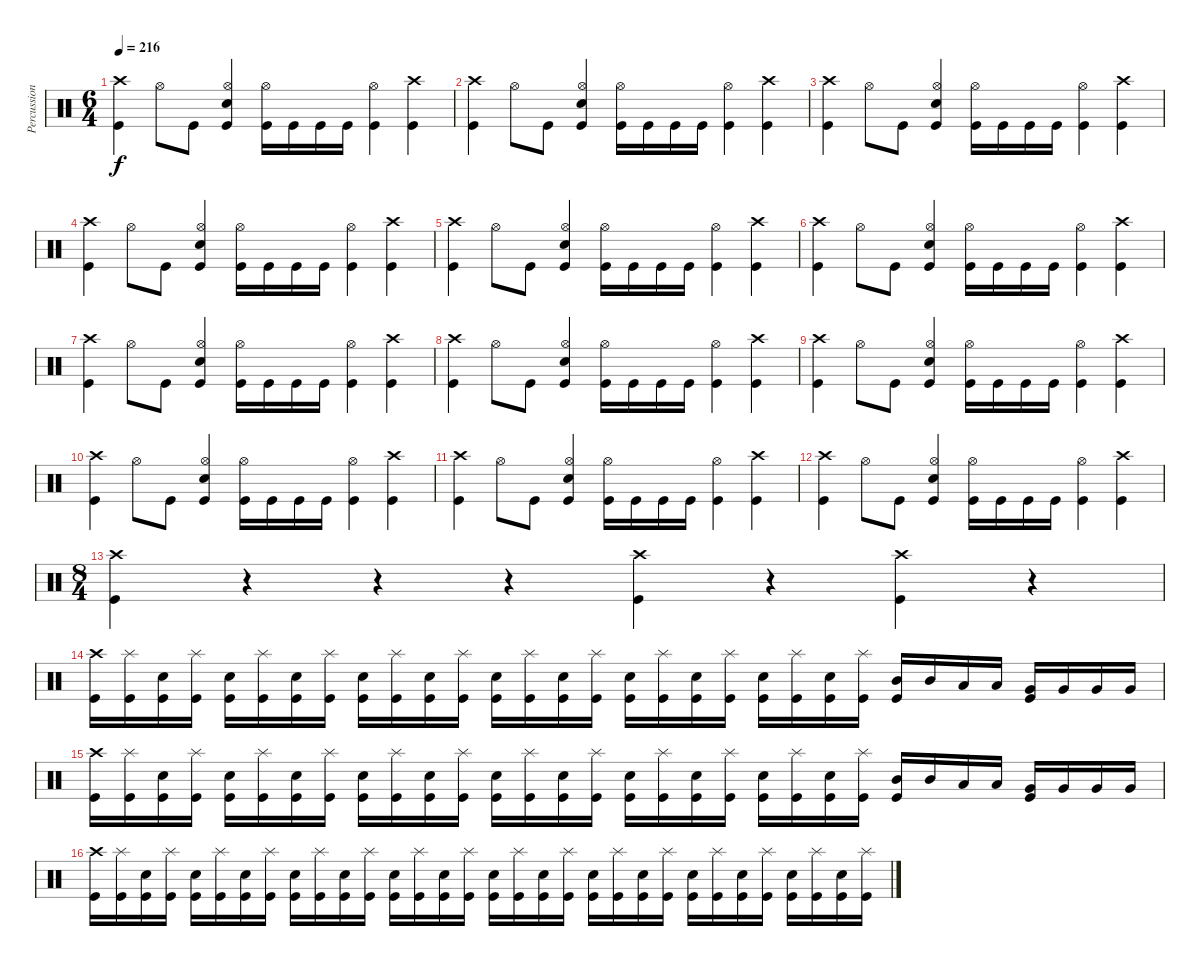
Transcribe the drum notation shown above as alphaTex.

\track ("Percussion" "Percussion") {instrument percussion}
\staff {score}
\articulation defaults
\ts (6 4)
\tempo 216
\clef neutral
\ks c
("Crash high (hit)" "Kick (hit)").4{dy f} "Hi-Hat (open)".8 "Kick (hit)".8 ("Hi-Hat (open)" "Electric Snare (hit)" "Kick (hit)").4 ("Hi-Hat (open)" "Kick (hit)").16 "Kick (hit)".16 "Kick (hit)".16 "Kick (hit)".16 ("Hi-Hat (open)" "Kick (hit)").4 ("Crash high (hit)" "Kick (hit)").4 |
("Crash high (hit)" "Kick (hit)").4 "Hi-Hat (open)".8 "Kick (hit)".8 ("Hi-Hat (open)" "Electric Snare (hit)" "Kick (hit)").4 ("Hi-Hat (open)" "Kick (hit)").16 "Kick (hit)".16 "Kick (hit)".16 "Kick (hit)".16 ("Hi-Hat (open)" "Kick (hit)").4 ("Crash high (hit)" "Kick (hit)").4 |
("Crash high (hit)" "Kick (hit)").4 "Hi-Hat (open)".8 "Kick (hit)".8 ("Hi-Hat (open)" "Electric Snare (hit)" "Kick (hit)").4 ("Hi-Hat (open)" "Kick (hit)").16 "Kick (hit)".16 "Kick (hit)".16 "Kick (hit)".16 ("Hi-Hat (open)" "Kick (hit)").4 ("Crash high (hit)" "Kick (hit)").4 |
("Crash high (hit)" "Kick (hit)").4 "Hi-Hat (open)".8 "Kick (hit)".8 ("Hi-Hat (open)" "Electric Snare (hit)" "Kick (hit)").4 ("Hi-Hat (open)" "Kick (hit)").16 "Kick (hit)".16 "Kick (hit)".16 "Kick (hit)".16 ("Hi-Hat (open)" "Kick (hit)").4 ("Crash high (hit)" "Kick (hit)").4 |
("Crash high (hit)" "Kick (hit)").4 "Hi-Hat (open)".8 "Kick (hit)".8 ("Hi-Hat (open)" "Electric Snare (hit)" "Kick (hit)").4 ("Hi-Hat (open)" "Kick (hit)").16 "Kick (hit)".16 "Kick (hit)".16 "Kick (hit)".16 ("Hi-Hat (open)" "Kick (hit)").4 ("Crash high (hit)" "Kick (hit)").4 |
("Crash high (hit)" "Kick (hit)").4 "Hi-Hat (open)".8 "Kick (hit)".8 ("Hi-Hat (open)" "Electric Snare (hit)" "Kick (hit)").4 ("Hi-Hat (open)" "Kick (hit)").16 "Kick (hit)".16 "Kick (hit)".16 "Kick (hit)".16 ("Hi-Hat (open)" "Kick (hit)").4 ("Crash high (hit)" "Kick (hit)").4 |
("Crash high (hit)" "Kick (hit)").4 "Hi-Hat (open)".8 "Kick (hit)".8 ("Hi-Hat (open)" "Electric Snare (hit)" "Kick (hit)").4 ("Hi-Hat (open)" "Kick (hit)").16 "Kick (hit)".16 "Kick (hit)".16 "Kick (hit)".16 ("Hi-Hat (open)" "Kick (hit)").4 ("Crash high (hit)" "Kick (hit)").4 |
("Crash high (hit)" "Kick (hit)").4 "Hi-Hat (open)".8 "Kick (hit)".8 ("Hi-Hat (open)" "Electric Snare (hit)" "Kick (hit)").4 ("Hi-Hat (open)" "Kick (hit)").16 "Kick (hit)".16 "Kick (hit)".16 "Kick (hit)".16 ("Hi-Hat (open)" "Kick (hit)").4 ("Crash high (hit)" "Kick (hit)").4 |
("Crash high (hit)" "Kick (hit)").4 "Hi-Hat (open)".8 "Kick (hit)".8 ("Hi-Hat (open)" "Electric Snare (hit)" "Kick (hit)").4 ("Hi-Hat (open)" "Kick (hit)").16 "Kick (hit)".16 "Kick (hit)".16 "Kick (hit)".16 ("Hi-Hat (open)" "Kick (hit)").4 ("Crash high (hit)" "Kick (hit)").4 |
("Crash high (hit)" "Kick (hit)").4 "Hi-Hat (open)".8 "Kick (hit)".8 ("Hi-Hat (open)" "Electric Snare (hit)" "Kick (hit)").4 ("Hi-Hat (open)" "Kick (hit)").16 "Kick (hit)".16 "Kick (hit)".16 "Kick (hit)".16 ("Hi-Hat (open)" "Kick (hit)").4 ("Crash high (hit)" "Kick (hit)").4 |
("Crash high (hit)" "Kick (hit)").4 "Hi-Hat (open)".8 "Kick (hit)".8 ("Hi-Hat (open)" "Electric Snare (hit)" "Kick (hit)").4 ("Hi-Hat (open)" "Kick (hit)").16 "Kick (hit)".16 "Kick (hit)".16 "Kick (hit)".16 ("Hi-Hat (open)" "Kick (hit)").4 ("Crash high (hit)" "Kick (hit)").4 |
("Crash high (hit)" "Kick (hit)").4 "Hi-Hat (open)".8 "Kick (hit)".8 ("Hi-Hat (open)" "Electric Snare (hit)" "Kick (hit)").4 ("Hi-Hat (open)" "Kick (hit)").16 "Kick (hit)".16 "Kick (hit)".16 "Kick (hit)".16 ("Hi-Hat (open)" "Kick (hit)").4 ("Crash high (hit)" "Kick (hit)").4 |
\ts (8 4)
("Crash high (hit)" "Kick (hit)").4 r.4 r.4 r.4 ("Crash high (hit)" "Kick (hit)").4 r.4 ("Crash high (hit)" "Kick (hit)").4 r.4 |
("Crash high (hit)" "Kick (hit)").16 ("Splash (hit)" "Kick (hit)").16 ("Electric Snare (hit)" "Kick (hit)").16 ("Splash (hit)" "Kick (hit)").16 ("Electric Snare (hit)" "Kick (hit)").16 ("Splash (hit)" "Kick (hit)").16 ("Electric Snare (hit)" "Kick (hit)").16 ("Splash (hit)" "Kick (hit)").16 ("Electric Snare (hit)" "Kick (hit)").16 ("Splash (hit)" "Kick (hit)").16 ("Electric Snare (hit)" "Kick (hit)").16 ("Splash (hit)" "Kick (hit)").16 ("Electric Snare (hit)" "Kick (hit)").16 ("Splash (hit)" "Kick (hit)").16 ("Electric Snare (hit)" "Kick (hit)").16 ("Splash (hit)" "Kick (hit)").16 ("Electric Snare (hit)" "Kick (hit)").16 ("Splash (hit)" "Kick (hit)").16 ("Electric Snare (hit)" "Kick (hit)").16 ("Splash (hit)" "Kick (hit)").16 ("Electric Snare (hit)" "Kick (hit)").16 ("Splash (hit)" "Kick (hit)").16 ("Electric Snare (hit)" "Kick (hit)").16 ("Splash (hit)" "Kick (hit)").16 ("Mid Tom (hit)" "Kick (hit)").16 "Mid Tom (hit)".16 "Low Tom (hit)".16 "Low Tom (hit)".16 ("Very Low Tom (hit)" "Kick (hit)").16 "Very Low Tom (hit)".16 "Very Low Tom (hit)".16 "Very Low Tom (hit)".16 |
("Crash high (hit)" "Kick (hit)").16 ("Splash (hit)" "Kick (hit)").16 ("Electric Snare (hit)" "Kick (hit)").16 ("Splash (hit)" "Kick (hit)").16 ("Electric Snare (hit)" "Kick (hit)").16 ("Splash (hit)" "Kick (hit)").16 ("Electric Snare (hit)" "Kick (hit)").16 ("Splash (hit)" "Kick (hit)").16 ("Electric Snare (hit)" "Kick (hit)").16 ("Splash (hit)" "Kick (hit)").16 ("Electric Snare (hit)" "Kick (hit)").16 ("Splash (hit)" "Kick (hit)").16 ("Electric Snare (hit)" "Kick (hit)").16 ("Splash (hit)" "Kick (hit)").16 ("Electric Snare (hit)" "Kick (hit)").16 ("Splash (hit)" "Kick (hit)").16 ("Electric Snare (hit)" "Kick (hit)").16 ("Splash (hit)" "Kick (hit)").16 ("Electric Snare (hit)" "Kick (hit)").16 ("Splash (hit)" "Kick (hit)").16 ("Electric Snare (hit)" "Kick (hit)").16 ("Splash (hit)" "Kick (hit)").16 ("Electric Snare (hit)" "Kick (hit)").16 ("Splash (hit)" "Kick (hit)").16 ("Mid Tom (hit)" "Kick (hit)").16 "Mid Tom (hit)".16 "Low Tom (hit)".16 "Low Tom (hit)".16 ("Very Low Tom (hit)" "Kick (hit)").16 "Very Low Tom (hit)".16 "Very Low Tom (hit)".16 "Very Low Tom (hit)".16 |
("Crash high (hit)" "Kick (hit)").16 ("Splash (hit)" "Kick (hit)").16 ("Electric Snare (hit)" "Kick (hit)").16 ("Splash (hit)" "Kick (hit)").16 ("Electric Snare (hit)" "Kick (hit)").16 ("Splash (hit)" "Kick (hit)").16 ("Electric Snare (hit)" "Kick (hit)").16 ("Splash (hit)" "Kick (hit)").16 ("Electric Snare (hit)" "Kick (hit)").16 ("Splash (hit)" "Kick (hit)").16 ("Electric Snare (hit)" "Kick (hit)").16 ("Splash (hit)" "Kick (hit)").16 ("Electric Snare (hit)" "Kick (hit)").16 ("Splash (hit)" "Kick (hit)").16 ("Electric Snare (hit)" "Kick (hit)").16 ("Splash (hit)" "Kick (hit)").16 ("Electric Snare (hit)" "Kick (hit)").16 ("Splash (hit)" "Kick (hit)").16 ("Electric Snare (hit)" "Kick (hit)").16 ("Splash (hit)" "Kick (hit)").16 ("Electric Snare (hit)" "Kick (hit)").16 ("Splash (hit)" "Kick (hit)").16 ("Electric Snare (hit)" "Kick (hit)").16 ("Splash (hit)" "Kick (hit)").16 ("Electric Snare (hit)" "Kick (hit)").16 ("Splash (hit)" "Kick (hit)").16 ("Electric Snare (hit)" "Kick (hit)").16 ("Splash (hit)" "Kick (hit)").16 ("Electric Snare (hit)" "Kick (hit)").16 ("Splash (hit)" "Kick (hit)").16 ("Electric Snare (hit)" "Kick (hit)").16 ("Splash (hit)" "Kick (hit)").16
